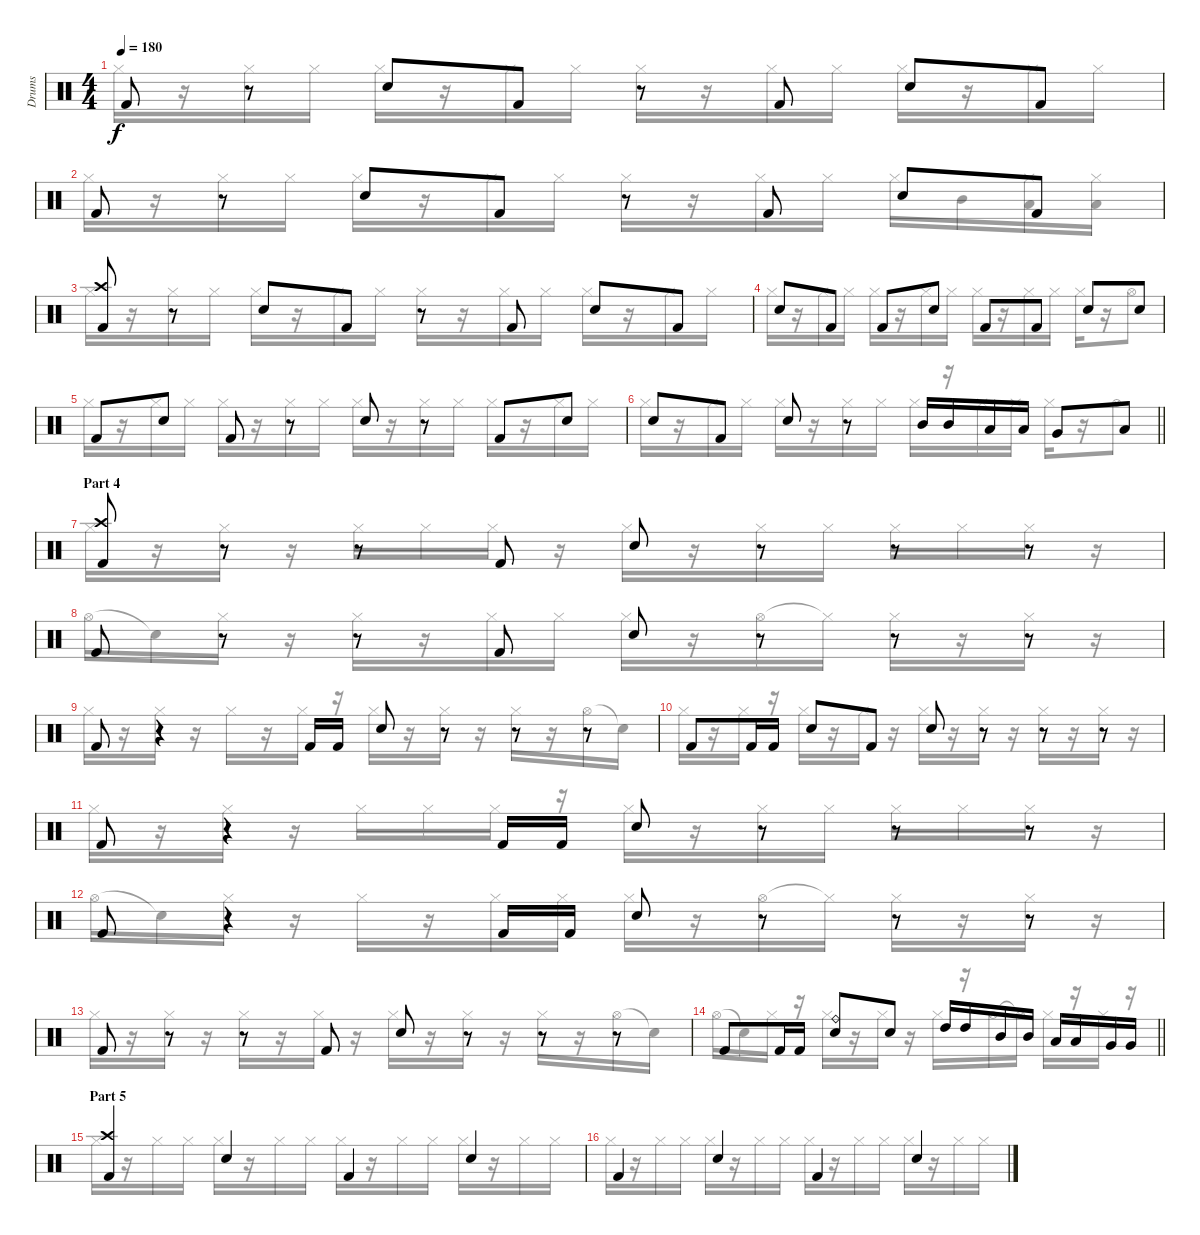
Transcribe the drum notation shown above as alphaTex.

\track ("Drums" "Drums") {instrument percussion}
\staff {score}
\articulation defaults
\voice
\ts (4 4)
\tempo 180
\clef neutral
\ks c "Kick (hit) 2".8{dy f}
r.8 "Snare (hit) 2".8 "Kick (hit) 2".8 r.8 "Kick (hit) 2".8 "Snare (hit) 2".8 "Kick (hit) 2".8 |
"Kick (hit) 2".8 r.8 "Snare (hit) 2".8 "Kick (hit) 2".8 r.8 "Kick (hit) 2".8 "Snare (hit) 2".8 "Kick (hit) 2".8 |
("Crash high (hit)" "Kick (hit) 2").8 r.8 "Snare (hit) 2".8 "Kick (hit) 2".8 r.8 "Kick (hit) 2".8 "Snare (hit) 2".8 "Kick (hit) 2".8 |
"Snare (hit) 2".8 "Kick (hit) 2".8 "Kick (hit) 2".8 "Snare (hit) 2".8 "Kick (hit) 2".8 "Kick (hit) 2".8 "Snare (hit) 2".8 "Snare (hit) 2".8 |
"Kick (hit) 2".8 "Snare (hit) 2".8 "Kick (hit) 2".8 r.8 "Snare (hit) 2".8 r.8 "Kick (hit) 2".8 "Snare (hit) 2".8 |
\barLineRight lightlight "Snare (hit) 2".8 "Kick (hit) 2".8 "Snare (hit) 2".8
r.8 "Mid Tom (hit)".16 "Mid Tom (hit)".16 "Low Tom (hit)".16 "Low Tom (hit)".16 "Very Low Tom (hit)".8 "Low Floor Tom (hit)".8 |
\section ("" "Part 4")
("Crash high (hit)" "Kick (hit) 2").8 r.8 r.8 "Kick (hit) 2".8 "Snare (hit) 2".8 r.8 r.8 r.8 |
"Kick (hit) 2".8 r.8 r.8 "Kick (hit) 2".8 "Snare (hit) 2".8 r.8 r.8 r.8 |
"Kick (hit) 2".8 r.4 "Kick (hit) 2".16 "Kick (hit) 2".16 "Snare (hit) 2".8 r.8 r.8 r.8 |
"Kick (hit) 2".8 "Kick (hit) 2".16 "Kick (hit) 2".16 "Snare (hit) 2".8 "Kick (hit) 2".8 "Snare (hit) 2".8 r.8 r.8 r.8 |
"Kick (hit) 2".8 r.4 "Kick (hit) 2".16 "Kick (hit) 2".16 "Snare (hit) 2".8 r.8 r.8 r.8 |
"Kick (hit) 2".8 r.4 "Kick (hit) 2".16 "Kick (hit) 2".16 "Snare (hit) 2".8 r.8 r.8 r.8 |
"Kick (hit) 2".8 r.8 r.8 "Kick (hit) 2".8 "Snare (hit) 2".8 r.8 r.8 r.8 |
\barLineRight lightlight "Kick (hit) 2".8 "Kick (hit) 2".16 "Kick (hit) 2".16
("Ride (bell)" "Snare (hit) 2").8 "Snare (hit) 2".8 "High Tom (hit)".16 "High Tom (hit)".16 "Mid Tom (hit)".16 "Mid Tom (hit)".16 "Low Tom (hit)".16 "Low Tom (hit)".16 "Very Low Tom (hit)".16 "Very Low Tom (hit)".16 |
\section ("" "Part 5")
("Crash high (hit)" "Kick (hit) 2").4 "Snare (hit) 2".4 "Kick (hit) 2".4 "Snare (hit) 2".4 |
"Kick (hit) 2".4 "Snare (hit) 2".4 "Kick (hit) 2".4 "Snare (hit) 2".4
\voice
\clef neutral
\ottava regular
\simile none
\ks c "Hi-Hat (closed)".16{dy f}
r.16 "Hi-Hat (closed)".16 "Hi-Hat (closed)".16 "Hi-Hat (closed)".16 r.16 "Hi-Hat (closed)".16 "Hi-Hat (closed)".16 "Hi-Hat (closed)".16 r.16 "Hi-Hat (closed)".16 "Hi-Hat (closed)".16 "Hi-Hat (closed)".16 r.16 "Hi-Hat (closed)".16 "Hi-Hat (closed)".16 |
"Hi-Hat (closed)".16 r.16 "Hi-Hat (closed)".16 "Hi-Hat (closed)".16 "Hi-Hat (closed)".16 r.16 "Hi-Hat (closed)".16 "Hi-Hat (closed)".16 "Hi-Hat (closed)".16 r.16 "Hi-Hat (closed)".16 "Hi-Hat (closed)".16 "Hi-Hat (closed)".16 "Mid Tom (hit)".16 ("Hi-Hat (closed)" "Low Tom (hit)").16 ("Hi-Hat (closed)" "Low Floor Tom (hit)").16 |
"Hi-Hat (closed)".16 r.16 "Hi-Hat (closed)".16 "Hi-Hat (closed)".16 "Hi-Hat (closed)".16 r.16 "Hi-Hat (closed)".16 "Hi-Hat (closed)".16 "Hi-Hat (closed)".16 r.16 "Hi-Hat (closed)".16 "Hi-Hat (closed)".16 "Hi-Hat (closed)".16 r.16 "Hi-Hat (closed)".16 "Hi-Hat (closed)".16 |
"Hi-Hat (closed)".16 r.16 "Hi-Hat (closed)".16 "Hi-Hat (closed)".16 "Hi-Hat (closed)".16 r.16 "Hi-Hat (closed)".16 "Hi-Hat (closed)".16 "Hi-Hat (closed)".16 r.16 "Hi-Hat (closed)".16 "Hi-Hat (closed)".16 "Hi-Hat (closed)".16 r.16 "Hi-Hat (open)".8 |
"Hi-Hat (closed)".16 r.16 "Hi-Hat (closed)".16 "Hi-Hat (closed)".16 "Hi-Hat (closed)".16 r.16 "Hi-Hat (closed)".16 "Hi-Hat (closed)".16 "Hi-Hat (closed)".16 r.16 "Hi-Hat (closed)".16 "Hi-Hat (closed)".16 "Hi-Hat (closed)".16 r.16 "Hi-Hat (closed)".16 "Hi-Hat (closed)".16 |
\barLineRight lightlight "Hi-Hat (closed)".16
r.16 "Hi-Hat (closed)".16 "Hi-Hat (closed)".16 "Hi-Hat (closed)".16 r.16 "Hi-Hat (closed)".16 "Hi-Hat (closed)".16 "Hi-Hat (closed)".16 r.16 "Hi-Hat (closed)".16 "Hi-Hat (closed)".16 "Hi-Hat (closed)".16 r.16 "Hi-Hat (open)".8 |
"Hi-Hat (closed)".16 r.16 "Hi-Hat (closed)".16 r.16 "Hi-Hat (closed)".16 "Hi-Hat (closed)".16 "Hi-Hat (closed)".16 r.16 "Hi-Hat (closed)".16 r.16 "Hi-Hat (closed)".16 "Hi-Hat (closed)".16 "Hi-Hat (closed)".16 "Hi-Hat (closed)".16 "Hi-Hat (closed)".16 r.16 |
"Hi-Hat (open)".16 "Snare (hit)"{t}.16 "Hi-Hat (closed)".16 r.16 "Hi-Hat (closed)".16 r.16 "Hi-Hat (closed)".16 "Hi-Hat (closed)".16 "Hi-Hat (closed)".16 r.16 "Hi-Hat (open)".16 "Hi-Hat (closed)"{t}.16 "Hi-Hat (closed)".16 r.16 "Hi-Hat (closed)".16 r.16 |
"Hi-Hat (closed)".16 r.16 "Hi-Hat (closed)".16 r.16 "Hi-Hat (closed)".16 r.16 "Hi-Hat (closed)".16 r.16 "Hi-Hat (closed)".16 r.16 "Hi-Hat (closed)".16 r.16 "Hi-Hat (closed)".16 r.16 "Hi-Hat (open)".16 "Snare (hit)"{t}.16 |
"Hi-Hat (closed)".16 r.16 "Hi-Hat (closed)".16 r.16 "Hi-Hat (closed)".16 r.16 "Hi-Hat (closed)".16 r.16 "Hi-Hat (closed)".16 r.16 "Hi-Hat (closed)".16 r.16 "Hi-Hat (closed)".16 r.16 "Hi-Hat (closed)".16 r.16 |
"Hi-Hat (closed)".16 r.16 "Hi-Hat (closed)".16 r.16 "Hi-Hat (closed)".16 "Hi-Hat (closed)".16 "Hi-Hat (closed)".16 r.16 "Hi-Hat (closed)".16 r.16 "Hi-Hat (closed)".16 "Hi-Hat (closed)".16 "Hi-Hat (closed)".16 "Hi-Hat (closed)".16 "Hi-Hat (closed)".16 r.16 |
"Hi-Hat (open)".16 "Snare (hit)"{t}.16 "Hi-Hat (closed)".16 r.16 "Hi-Hat (closed)".16 r.16 "Hi-Hat (closed)".16 "Hi-Hat (closed)".16 "Hi-Hat (closed)".16 r.16 "Hi-Hat (open)".16 "Hi-Hat (closed)"{t}.16 "Hi-Hat (closed)".16 r.16 "Hi-Hat (closed)".16 r.16 |
"Hi-Hat (closed)".16 r.16 "Hi-Hat (closed)".16 r.16 "Hi-Hat (closed)".16 r.16 "Hi-Hat (closed)".16 r.16 "Hi-Hat (closed)".16 r.16 "Hi-Hat (closed)".16 r.16 "Hi-Hat (closed)".16 r.16 "Hi-Hat (open)".16 "Snare (hit)"{t}.16 |
\barLineRight lightlight "Hi-Hat (open)".16 "Snare (hit)"{t}.16 "Hi-Hat (closed)".16
r.16 "Hi-Hat (closed)".16 r.16 "Hi-Hat (closed)".16 r.16 "Hi-Hat (closed)".16 r.16 "Hi-Hat (open)".16 "Hi-Hat (open)"{t}.16 "Hi-Hat (closed)".16 r.16 "Hi-Hat (closed)".16 r.16 |
"Hi-Hat (closed)".16 r.16 "Hi-Hat (closed)".16 "Hi-Hat (closed)".16 "Hi-Hat (closed)".16 r.16 "Hi-Hat (closed)".16 "Hi-Hat (closed)".16 "Hi-Hat (closed)".16 r.16 "Hi-Hat (closed)".16 "Hi-Hat (closed)".16 "Hi-Hat (closed)".16 r.16 "Hi-Hat (closed)".16 "Hi-Hat (closed)".16 |
"Hi-Hat (closed)".16 r.16 "Hi-Hat (closed)".16 "Hi-Hat (closed)".16 "Hi-Hat (closed)".16 r.16 "Hi-Hat (closed)".16 "Hi-Hat (closed)".16 "Hi-Hat (closed)".16 r.16 "Hi-Hat (closed)".16 "Hi-Hat (closed)".16 "Hi-Hat (closed)".16 r.16 "Hi-Hat (closed)".16 "Hi-Hat (closed)".16
